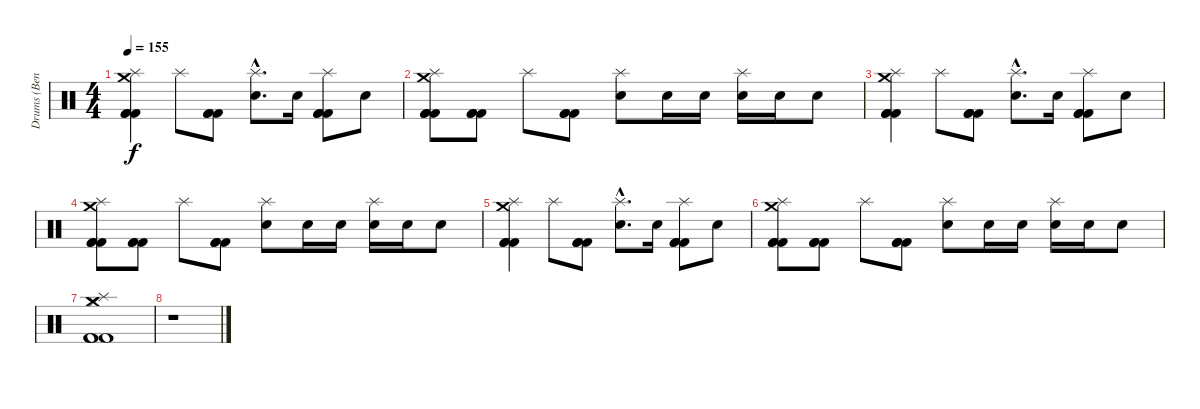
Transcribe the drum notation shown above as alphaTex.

\track ("Drums (Ben)" "Drums (Ben") {instrument percussion}
\staff {score}
\articulation defaults
\ts (4 4)
\tempo 155
\clef neutral
\ks c
("Splash (hit)" "Kick (hit) 2" "Kick (hit) 2" "Kick (hit) 2" "Crash medium (hit)").4{dy f} "Splash (hit)".8 ("Kick (hit) 2" "Kick (hit) 2" "Kick (hit) 2").8 ("Splash (hit)"{hac} "Electric Snare (hit)"{hac}).8{d} "Electric Snare (hit)".16 ("Splash (hit)" "Kick (hit) 2" "Kick (hit) 2" "Kick (hit) 2").8 "Electric Snare (hit)".8 |
("Splash (hit)" "Kick (hit) 2" "Kick (hit) 2" "Kick (hit) 2" "Crash medium (hit)").8 ("Kick (hit) 2" "Kick (hit) 2" "Kick (hit) 2").8 "Splash (hit)".8 ("Kick (hit) 2" "Kick (hit) 2" "Kick (hit) 2").8 ("Splash (hit)" "Electric Snare (hit)").8 "Electric Snare (hit)".16 "Electric Snare (hit)".16 ("Splash (hit)" "Electric Snare (hit)").16 "Electric Snare (hit)".16 "Electric Snare (hit)".8 |
("Splash (hit)" "Kick (hit) 2" "Kick (hit) 2" "Kick (hit) 2" "Crash medium (hit)").4 "Splash (hit)".8 ("Kick (hit) 2" "Kick (hit) 2" "Kick (hit) 2").8 ("Splash (hit)"{hac} "Electric Snare (hit)"{hac}).8{d} "Electric Snare (hit)".16 ("Splash (hit)" "Kick (hit) 2" "Kick (hit) 2" "Kick (hit) 2").8 "Electric Snare (hit)".8 |
("Splash (hit)" "Kick (hit) 2" "Kick (hit) 2" "Kick (hit) 2" "Crash medium (hit)").8 ("Kick (hit) 2" "Kick (hit) 2" "Kick (hit) 2").8 "Splash (hit)".8 ("Kick (hit) 2" "Kick (hit) 2" "Kick (hit) 2").8 ("Splash (hit)" "Electric Snare (hit)").8 "Electric Snare (hit)".16 "Electric Snare (hit)".16 ("Splash (hit)" "Electric Snare (hit)").16 "Electric Snare (hit)".16 "Electric Snare (hit)".8 |
("Splash (hit)" "Kick (hit) 2" "Kick (hit) 2" "Kick (hit) 2" "Crash medium (hit)").4 "Splash (hit)".8 ("Kick (hit) 2" "Kick (hit) 2" "Kick (hit) 2").8 ("Splash (hit)"{hac} "Electric Snare (hit)"{hac}).8{d} "Electric Snare (hit)".16 ("Splash (hit)" "Kick (hit) 2" "Kick (hit) 2" "Kick (hit) 2").8 "Electric Snare (hit)".8 |
("Splash (hit)" "Kick (hit) 2" "Kick (hit) 2" "Kick (hit) 2" "Crash medium (hit)").8 ("Kick (hit) 2" "Kick (hit) 2" "Kick (hit) 2").8 "Splash (hit)".8 ("Kick (hit) 2" "Kick (hit) 2" "Kick (hit) 2").8 ("Splash (hit)" "Electric Snare (hit)").8 "Electric Snare (hit)".16 "Electric Snare (hit)".16 ("Splash (hit)" "Electric Snare (hit)").16 "Electric Snare (hit)".16 "Electric Snare (hit)".8 |
("Hi-Hat (closed)" "Kick (hit) 2" "Splash (hit)" "Kick (hit) 2" "Kick (hit) 2" "Crash medium (hit)").1 |
r.1
